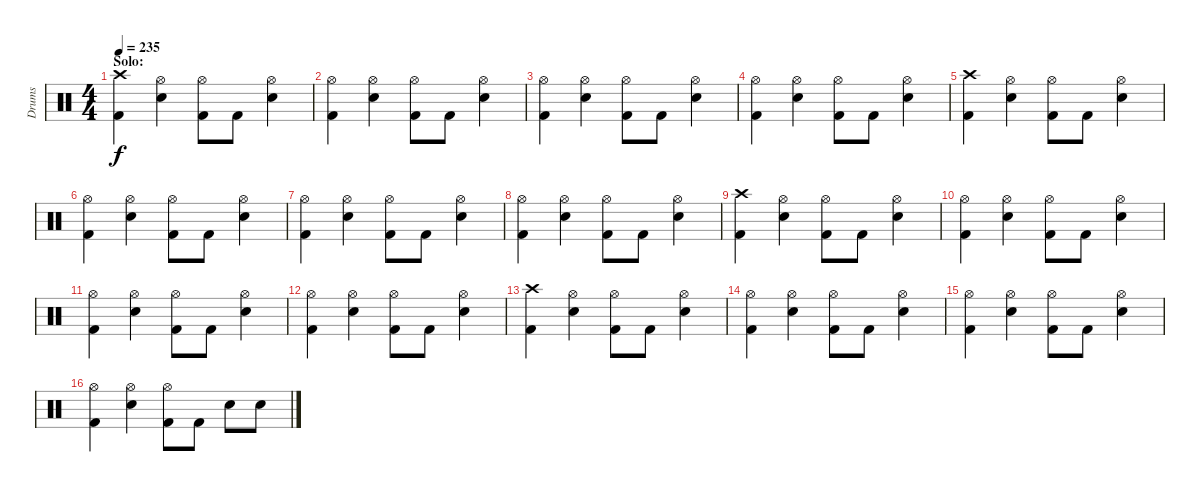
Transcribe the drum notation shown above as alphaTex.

\track ("Drums" "Drums") {instrument percussion}
\staff {score}
\articulation defaults
\ts (4 4)
\section ("" "Solo:")
\tempo 235
\clef neutral
\ks c
("Crash high (hit)" "Kick (hit) 2").4{dy f} ("Hi-Hat (open)" "Snare (hit) 2").4 ("Hi-Hat (open)" "Kick (hit) 2").8 "Kick (hit) 2".8 ("Hi-Hat (open)" "Snare (hit) 2").4 |
("Hi-Hat (open)" "Kick (hit) 2").4 ("Hi-Hat (open)" "Snare (hit) 2").4 ("Hi-Hat (open)" "Kick (hit) 2").8 "Kick (hit) 2".8 ("Hi-Hat (open)" "Snare (hit) 2").4 |
("Hi-Hat (open)" "Kick (hit) 2").4 ("Hi-Hat (open)" "Snare (hit) 2").4 ("Hi-Hat (open)" "Kick (hit) 2").8 "Kick (hit) 2".8 ("Hi-Hat (open)" "Snare (hit) 2").4 |
("Hi-Hat (open)" "Kick (hit) 2").4 ("Hi-Hat (open)" "Snare (hit) 2").4 ("Hi-Hat (open)" "Kick (hit) 2").8 "Kick (hit) 2".8 ("Hi-Hat (open)" "Snare (hit) 2").4 |
("Crash high (hit)" "Kick (hit) 2").4 ("Hi-Hat (open)" "Snare (hit) 2").4 ("Hi-Hat (open)" "Kick (hit) 2").8 "Kick (hit) 2".8 ("Hi-Hat (open)" "Snare (hit) 2").4 |
("Hi-Hat (open)" "Kick (hit) 2").4 ("Hi-Hat (open)" "Snare (hit) 2").4 ("Hi-Hat (open)" "Kick (hit) 2").8 "Kick (hit) 2".8 ("Hi-Hat (open)" "Snare (hit) 2").4 |
("Hi-Hat (open)" "Kick (hit) 2").4 ("Hi-Hat (open)" "Snare (hit) 2").4 ("Hi-Hat (open)" "Kick (hit) 2").8 "Kick (hit) 2".8 ("Hi-Hat (open)" "Snare (hit) 2").4 |
("Hi-Hat (open)" "Kick (hit) 2").4 ("Hi-Hat (open)" "Snare (hit) 2").4 ("Hi-Hat (open)" "Kick (hit) 2").8 "Kick (hit) 2".8 ("Hi-Hat (open)" "Snare (hit) 2").4 |
("Crash high (hit)" "Kick (hit) 2").4 ("Hi-Hat (open)" "Snare (hit) 2").4 ("Hi-Hat (open)" "Kick (hit) 2").8 "Kick (hit) 2".8 ("Hi-Hat (open)" "Snare (hit) 2").4 |
("Hi-Hat (open)" "Kick (hit) 2").4 ("Hi-Hat (open)" "Snare (hit) 2").4 ("Hi-Hat (open)" "Kick (hit) 2").8 "Kick (hit) 2".8 ("Hi-Hat (open)" "Snare (hit) 2").4 |
("Hi-Hat (open)" "Kick (hit) 2").4 ("Hi-Hat (open)" "Snare (hit) 2").4 ("Hi-Hat (open)" "Kick (hit) 2").8 "Kick (hit) 2".8 ("Hi-Hat (open)" "Snare (hit) 2").4 |
("Hi-Hat (open)" "Kick (hit) 2").4 ("Hi-Hat (open)" "Snare (hit) 2").4 ("Hi-Hat (open)" "Kick (hit) 2").8 "Kick (hit) 2".8 ("Hi-Hat (open)" "Snare (hit) 2").4 |
("Crash high (hit)" "Kick (hit) 2").4 ("Hi-Hat (open)" "Snare (hit) 2").4 ("Hi-Hat (open)" "Kick (hit) 2").8 "Kick (hit) 2".8 ("Hi-Hat (open)" "Snare (hit) 2").4 |
("Hi-Hat (open)" "Kick (hit) 2").4 ("Hi-Hat (open)" "Snare (hit) 2").4 ("Hi-Hat (open)" "Kick (hit) 2").8 "Kick (hit) 2".8 ("Hi-Hat (open)" "Snare (hit) 2").4 |
("Hi-Hat (open)" "Kick (hit) 2").4 ("Hi-Hat (open)" "Snare (hit) 2").4 ("Hi-Hat (open)" "Kick (hit) 2").8 "Kick (hit) 2".8 ("Hi-Hat (open)" "Snare (hit) 2").4 |
("Hi-Hat (open)" "Kick (hit) 2").4 ("Hi-Hat (open)" "Snare (hit) 2").4 ("Hi-Hat (open)" "Kick (hit) 2").8 "Kick (hit) 2".8 "Snare (hit) 2".8 "Snare (hit) 2".8
